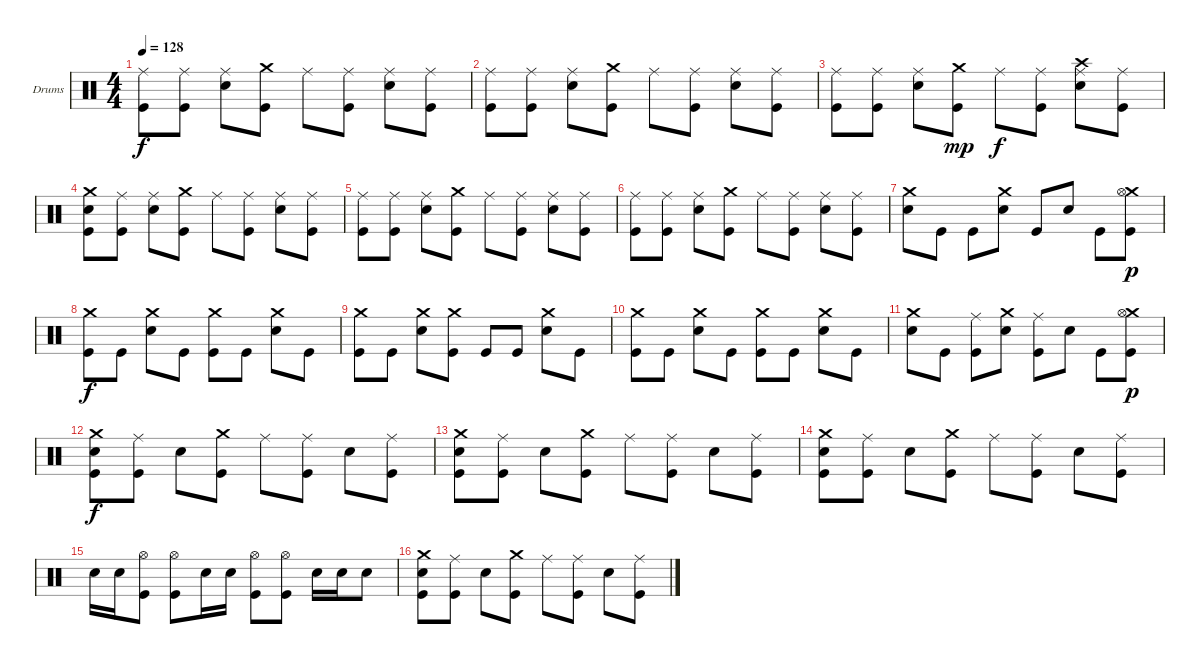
\defaultSystemsLayout 4
\bracketExtendMode nobrackets
\firstSystemTrackNameOrientation horizontal
\otherSystemsTrackNameOrientation horizontal
\track ("Dave Krusen" "Drums") {instrument percussion}
\staff {score}
\articulation defaults
\ts (4 4)
\tempo 128
\clef neutral
\ks c
("Ride (middle)" "Kick (hit)").8{dy f} ("Ride (middle)" "Kick (hit)").8 ("Ride (middle)" "Snare (hit) 2").8 ("Crash medium (hit)" "Kick (hit)").8 "Ride (middle)".8 ("Ride (middle)" "Kick (hit)").8 ("Ride (middle)" "Snare (hit) 2").8 ("Ride (middle)" "Kick (hit)").8 |
("Ride (middle)" "Kick (hit)").8 ("Ride (middle)" "Kick (hit)").8 ("Ride (middle)" "Snare (hit) 2").8 ("Crash medium (hit)" "Kick (hit)").8 "Ride (middle)".8 ("Ride (middle)" "Kick (hit)").8 ("Ride (middle)" "Snare (hit) 2").8 ("Ride (middle)" "Kick (hit)").8 |
("Ride (middle)" "Kick (hit)").8 ("Ride (middle)" "Kick (hit)").8 ("Ride (middle)" "Snare (hit) 2").8 ("Crash medium (hit)" "Kick (hit)").8{dy mp} "Ride (middle)".8{dy f} ("Ride (middle)" "Kick (hit)").8 ("Crash high (hit)" "Ride (middle)" "Snare (hit) 2").8 ("Ride (middle)" "Kick (hit)").8 |
("Crash medium (hit)" "Snare (hit) 2" "Kick (hit)").8 ("Ride (middle)" "Kick (hit)").8 ("Ride (middle)" "Snare (hit) 2").8 ("Crash medium (hit)" "Kick (hit)").8 "Ride (middle)".8 ("Ride (middle)" "Kick (hit)").8 ("Ride (middle)" "Snare (hit) 2").8 ("Ride (middle)" "Kick (hit)").8 |
("Ride (middle)" "Kick (hit)").8 ("Ride (middle)" "Kick (hit)").8 ("Ride (middle)" "Snare (hit) 2").8 ("Crash medium (hit)" "Kick (hit)").8 "Ride (middle)".8 ("Ride (middle)" "Kick (hit)").8 ("Ride (middle)" "Snare (hit) 2").8 ("Ride (middle)" "Kick (hit)").8 |
("Ride (middle)" "Kick (hit)").8 ("Ride (middle)" "Kick (hit)").8 ("Ride (middle)" "Snare (hit) 2").8 ("Crash medium (hit)" "Kick (hit)").8 "Ride (middle)".8 ("Ride (middle)" "Kick (hit)").8 ("Ride (middle)" "Snare (hit) 2").8 ("Ride (middle)" "Kick (hit)").8 |
("Crash medium (hit)" "Snare (hit) 2").8 "Kick (hit)".8 "Kick (hit)".8 ("Crash medium (hit)" "Snare (hit) 2").8 "Kick (hit)".8 "Snare (hit) 2".8 "Kick (hit)".8 ("Crash medium (hit)" "Hi-Hat (open)" "Kick (hit)").8{dy p} |
("Crash medium (hit)" "Kick (hit)").8{dy f} "Kick (hit)".8 ("Crash medium (hit)" "Snare (hit) 2").8 "Kick (hit)".8 ("Crash medium (hit)" "Kick (hit)").8 "Kick (hit)".8 ("Crash medium (hit)" "Snare (hit) 2").8 "Kick (hit)".8 |
("Crash medium (hit)" "Kick (hit)").8 "Kick (hit)".8 ("Crash medium (hit)" "Snare (hit) 2").8 ("Crash medium (hit)" "Kick (hit)").8 "Kick (hit)".8 "Kick (hit)".8 ("Crash medium (hit)" "Snare (hit) 2").8 "Kick (hit)".8 |
("Crash medium (hit)" "Kick (hit)").8 "Kick (hit)".8 ("Crash medium (hit)" "Snare (hit) 2").8 "Kick (hit)".8 ("Crash medium (hit)" "Kick (hit)").8 "Kick (hit)".8 ("Crash medium (hit)" "Snare (hit) 2").8 "Kick (hit)".8 |
("Crash medium (hit)" "Snare (hit) 2").8 "Kick (hit)".8 ("Ride (middle)" "Kick (hit)").8 ("Crash medium (hit)" "Snare (hit) 2").8 ("Ride (middle)" "Kick (hit)").8 "Snare (hit) 2".8 "Kick (hit)".8 ("Crash medium (hit)" "Hi-Hat (open)" "Kick (hit)").8{dy p} |
("Crash medium (hit)" "Snare (hit) 2" "Kick (hit)").8{dy f} ("Ride (middle)" "Kick (hit)").8 "Snare (hit) 2".8 ("Crash medium (hit)" "Kick (hit)").8 "Ride (middle)".8 ("Ride (middle)" "Kick (hit)").8 "Snare (hit) 2".8 ("Ride (middle)" "Kick (hit)").8 |
("Crash medium (hit)" "Snare (hit) 2" "Kick (hit)").8 ("Ride (middle)" "Kick (hit)").8 "Snare (hit) 2".8 ("Crash medium (hit)" "Kick (hit)").8 "Ride (middle)".8 ("Ride (middle)" "Kick (hit)").8 "Snare (hit) 2".8 ("Ride (middle)" "Kick (hit)").8 |
("Crash medium (hit)" "Snare (hit) 2" "Kick (hit)").8 ("Ride (middle)" "Kick (hit)").8 "Snare (hit) 2".8 ("Crash medium (hit)" "Kick (hit)").8 "Ride (middle)".8 ("Ride (middle)" "Kick (hit)").8 "Snare (hit) 2".8 ("Ride (middle)" "Kick (hit)").8 |
"Snare (hit) 2".16 "Snare (hit) 2".16 ("Hi-Hat (open)" "Kick (hit)").8 ("Hi-Hat (open)" "Kick (hit)").8 "Snare (hit) 2".16 "Snare (hit) 2".16 ("Hi-Hat (open)" "Kick (hit)").8 ("Hi-Hat (open)" "Kick (hit)").8 "Snare (hit) 2".16 "Snare (hit) 2".16 "Snare (hit) 2".8 |
("Crash medium (hit)" "Snare (hit) 2" "Kick (hit)").8 ("Ride (middle)" "Kick (hit)").8 "Snare (hit) 2".8 ("Crash medium (hit)" "Kick (hit)").8 "Ride (middle)".8 ("Ride (middle)" "Kick (hit)").8 "Snare (hit) 2".8 ("Ride (middle)" "Kick (hit)").8
